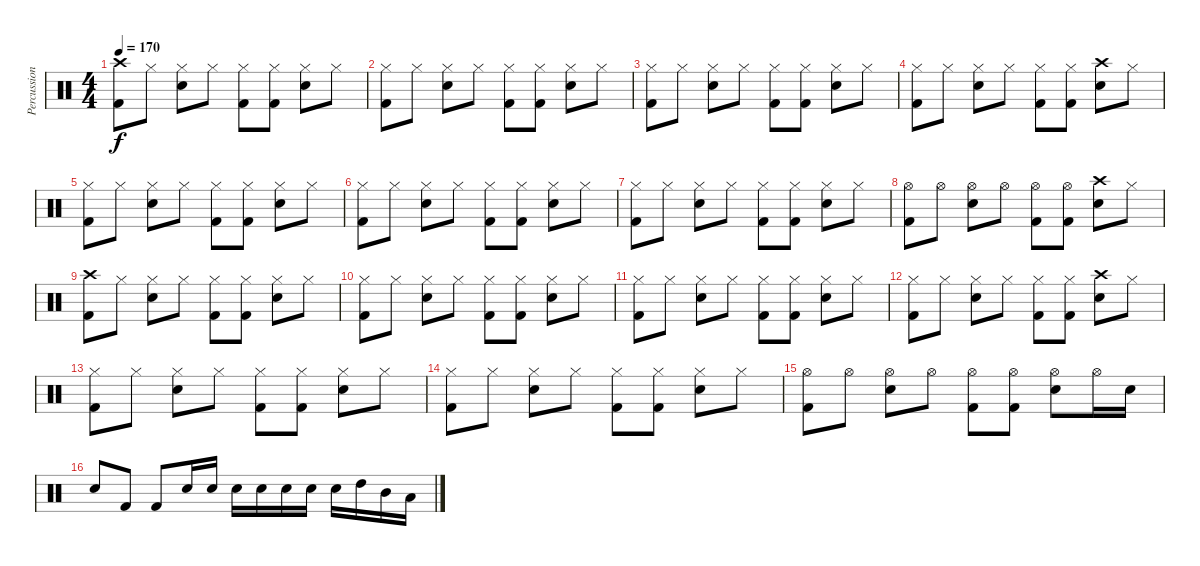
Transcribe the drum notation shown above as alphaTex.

\track ("Percussion" "Percussion") {instrument percussion}
\staff {score}
\articulation defaults
\ts (4 4)
\tempo 170
\clef neutral
\ks c
("Crash high (hit)" "Kick (hit) 2").8{dy f} "Hi-Hat (closed)".8 ("Hi-Hat (closed)" "Electric Snare (hit)").8 "Hi-Hat (closed)".8 ("Hi-Hat (closed)" "Kick (hit) 2").8 ("Hi-Hat (closed)" "Kick (hit) 2").8 ("Hi-Hat (closed)" "Electric Snare (hit)").8 "Hi-Hat (closed)".8 |
("Hi-Hat (closed)" "Kick (hit) 2").8 "Hi-Hat (closed)".8 ("Hi-Hat (closed)" "Electric Snare (hit)").8 "Hi-Hat (closed)".8 ("Hi-Hat (closed)" "Kick (hit) 2").8 ("Hi-Hat (closed)" "Kick (hit) 2").8 ("Hi-Hat (closed)" "Electric Snare (hit)").8 "Hi-Hat (closed)".8 |
("Hi-Hat (closed)" "Kick (hit) 2").8 "Hi-Hat (closed)".8 ("Hi-Hat (closed)" "Electric Snare (hit)").8 "Hi-Hat (closed)".8 ("Hi-Hat (closed)" "Kick (hit) 2").8 ("Hi-Hat (closed)" "Kick (hit) 2").8 ("Hi-Hat (closed)" "Electric Snare (hit)").8 "Hi-Hat (closed)".8 |
("Hi-Hat (closed)" "Kick (hit) 2").8 "Hi-Hat (closed)".8 ("Hi-Hat (closed)" "Electric Snare (hit)").8 "Hi-Hat (closed)".8 ("Hi-Hat (closed)" "Kick (hit) 2").8 ("Hi-Hat (closed)" "Kick (hit) 2").8 ("Crash high (hit)" "Electric Snare (hit)").8 "Hi-Hat (closed)".8 |
("Hi-Hat (closed)" "Kick (hit) 2").8 "Hi-Hat (closed)".8 ("Hi-Hat (closed)" "Electric Snare (hit)").8 "Hi-Hat (closed)".8 ("Hi-Hat (closed)" "Kick (hit) 2").8 ("Hi-Hat (closed)" "Kick (hit) 2").8 ("Hi-Hat (closed)" "Electric Snare (hit)").8 "Hi-Hat (closed)".8 |
("Hi-Hat (closed)" "Kick (hit) 2").8 "Hi-Hat (closed)".8 ("Hi-Hat (closed)" "Electric Snare (hit)").8 "Hi-Hat (closed)".8 ("Hi-Hat (closed)" "Kick (hit) 2").8 ("Hi-Hat (closed)" "Kick (hit) 2").8 ("Hi-Hat (closed)" "Electric Snare (hit)").8 "Hi-Hat (closed)".8 |
("Hi-Hat (closed)" "Kick (hit) 2").8 "Hi-Hat (closed)".8 ("Hi-Hat (closed)" "Electric Snare (hit)").8 "Hi-Hat (closed)".8 ("Hi-Hat (closed)" "Kick (hit) 2").8 ("Hi-Hat (closed)" "Kick (hit) 2").8 ("Hi-Hat (closed)" "Electric Snare (hit)").8 "Hi-Hat (closed)".8 |
("Hi-Hat (open)" "Kick (hit) 2").8 "Hi-Hat (open)".8 ("Hi-Hat (open)" "Electric Snare (hit)").8 "Hi-Hat (open)".8 ("Hi-Hat (open)" "Kick (hit) 2").8 ("Hi-Hat (open)" "Kick (hit) 2").8 ("Crash high (hit)" "Electric Snare (hit)").8 "Hi-Hat (closed)".8 |
("Crash high (hit)" "Kick (hit) 2").8 "Hi-Hat (closed)".8 ("Hi-Hat (closed)" "Electric Snare (hit)").8 "Hi-Hat (closed)".8 ("Hi-Hat (closed)" "Kick (hit) 2").8 ("Hi-Hat (closed)" "Kick (hit) 2").8 ("Hi-Hat (closed)" "Electric Snare (hit)").8 "Hi-Hat (closed)".8 |
("Hi-Hat (closed)" "Kick (hit) 2").8 "Hi-Hat (closed)".8 ("Hi-Hat (closed)" "Electric Snare (hit)").8 "Hi-Hat (closed)".8 ("Hi-Hat (closed)" "Kick (hit) 2").8 ("Hi-Hat (closed)" "Kick (hit) 2").8 ("Hi-Hat (closed)" "Electric Snare (hit)").8 "Hi-Hat (closed)".8 |
("Hi-Hat (closed)" "Kick (hit) 2").8 "Hi-Hat (closed)".8 ("Hi-Hat (closed)" "Electric Snare (hit)").8 "Hi-Hat (closed)".8 ("Hi-Hat (closed)" "Kick (hit) 2").8 ("Hi-Hat (closed)" "Kick (hit) 2").8 ("Hi-Hat (closed)" "Electric Snare (hit)").8 "Hi-Hat (closed)".8 |
("Hi-Hat (closed)" "Kick (hit) 2").8 "Hi-Hat (closed)".8 ("Hi-Hat (closed)" "Electric Snare (hit)").8 "Hi-Hat (closed)".8 ("Hi-Hat (closed)" "Kick (hit) 2").8 ("Hi-Hat (closed)" "Kick (hit) 2").8 ("Crash high (hit)" "Electric Snare (hit)").8 "Hi-Hat (closed)".8 |
("Hi-Hat (closed)" "Kick (hit) 2").8 "Hi-Hat (closed)".8 ("Hi-Hat (closed)" "Electric Snare (hit)").8 "Hi-Hat (closed)".8 ("Hi-Hat (closed)" "Kick (hit) 2").8 ("Hi-Hat (closed)" "Kick (hit) 2").8 ("Hi-Hat (closed)" "Electric Snare (hit)").8 "Hi-Hat (closed)".8 |
("Hi-Hat (closed)" "Kick (hit) 2").8 "Hi-Hat (closed)".8 ("Hi-Hat (closed)" "Electric Snare (hit)").8 "Hi-Hat (closed)".8 ("Hi-Hat (closed)" "Kick (hit) 2").8 ("Hi-Hat (closed)" "Kick (hit) 2").8 ("Hi-Hat (closed)" "Electric Snare (hit)").8 "Hi-Hat (closed)".8 |
("Hi-Hat (open)" "Kick (hit) 2").8 "Hi-Hat (open)".8 ("Hi-Hat (open)" "Electric Snare (hit)").8 "Hi-Hat (open)".8 ("Hi-Hat (open)" "Kick (hit) 2").8 ("Hi-Hat (open)" "Kick (hit) 2").8 ("Hi-Hat (open)" "Electric Snare (hit)").8 "Hi-Hat (open)".16 "Electric Snare (hit)".16 |
"Electric Snare (hit)".8 "Kick (hit) 2".8 "Kick (hit) 2".8 "Electric Snare (hit)".16 "Electric Snare (hit)".16 "Electric Snare (hit)".16 "Electric Snare (hit)".16 "Electric Snare (hit)".16 "Electric Snare (hit)".16 "Electric Snare (hit)".16 "High Tom (hit)".16 "Mid Tom (hit)".16 "Low Tom (hit)".16
